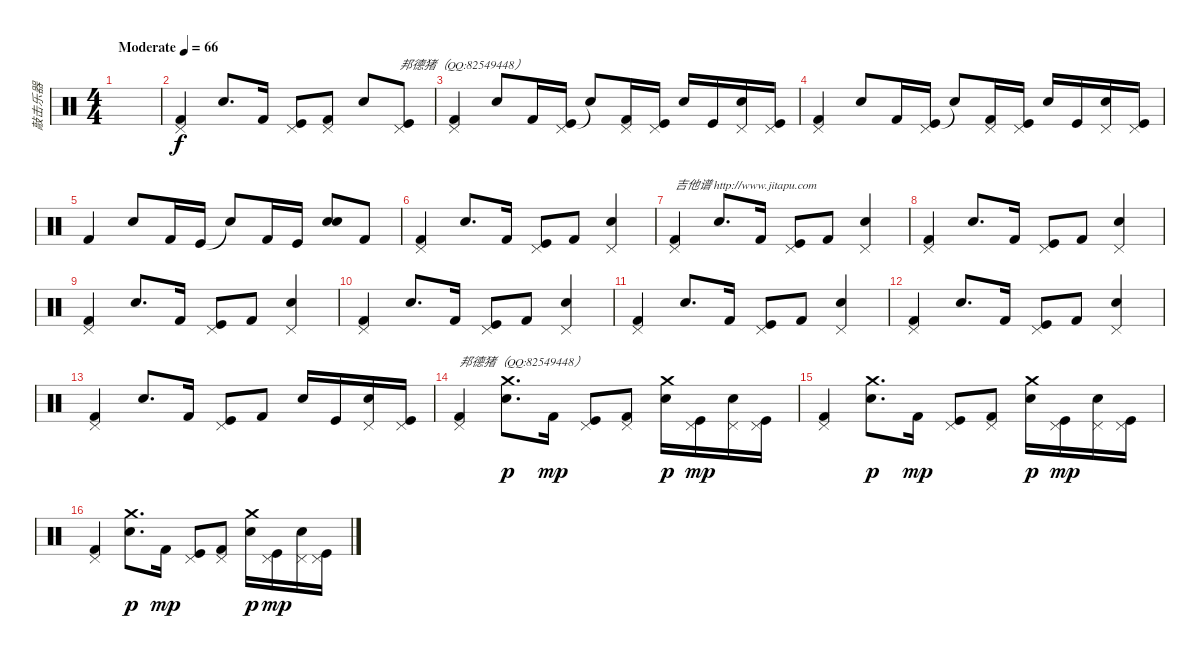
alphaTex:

\track ("敲击乐器" "敲击乐器") {instrument percussion}
\staff {score}
\articulation defaults
\ts (4 4)
\tempo (66 "Moderate")
\clef neutral
\ks c
|
("Kick (hit) 2" "Pedal Hi-Hat (hit)").4 "Snare (hit) 2".8{d} "Kick (hit) 2".16 ("Kick (hit)" "Pedal Hi-Hat (hit)").8 ("Kick (hit) 2" "Pedal Hi-Hat (hit)").8 "Snare (hit) 2".8 ("Kick (hit)" "Pedal Hi-Hat (hit)").8{txt "邦德猪（QQ:82549448）"} |
("Kick (hit) 2" "Pedal Hi-Hat (hit)").4 "Snare (hit) 2".8 "Kick (hit) 2".16 ("Kick (hit)" "Pedal Hi-Hat (hit)").16 "Snare (hit) 2"{t}.8 ("Kick (hit) 2" "Pedal Hi-Hat (hit)").16 ("Kick (hit)" "Pedal Hi-Hat (hit)").16 "Snare (hit) 2".16 "Kick (hit)".16 ("Snare (hit) 2" "Pedal Hi-Hat (hit)").16 ("Kick (hit)" "Pedal Hi-Hat (hit)").16 |
("Kick (hit) 2" "Pedal Hi-Hat (hit)").4 "Snare (hit) 2".8 "Kick (hit) 2".16 ("Kick (hit)" "Pedal Hi-Hat (hit)").16 "Snare (hit) 2"{t}.8 ("Kick (hit) 2" "Pedal Hi-Hat (hit)").16 ("Kick (hit)" "Pedal Hi-Hat (hit)").16 "Snare (hit) 2".16 "Kick (hit)".16 ("Snare (hit) 2" "Pedal Hi-Hat (hit)").16 ("Kick (hit)" "Pedal Hi-Hat (hit)").16 |
"Kick (hit) 2".4 "Snare (hit) 2".8 "Kick (hit) 2".16 "Kick (hit)".16 "Snare (hit) 2"{t}.8 "Kick (hit) 2".16 "Kick (hit)".16 ("Snare (hit) 2" "Electric Snare (hit)").8 "Kick (hit) 2".8 |
("Kick (hit) 2" "Pedal Hi-Hat (hit)").4 "Snare (hit) 2".8{d} "Kick (hit) 2".16 ("Kick (hit)" "Pedal Hi-Hat (hit)").8 "Kick (hit) 2".8 ("Snare (hit) 2" "Pedal Hi-Hat (hit)").4 |
("Kick (hit) 2" "Pedal Hi-Hat (hit)").4{txt "吉他谱 http://www.jitapu.com"} "Snare (hit) 2".8{d} "Kick (hit) 2".16 ("Kick (hit)" "Pedal Hi-Hat (hit)").8 "Kick (hit) 2".8 ("Snare (hit) 2" "Pedal Hi-Hat (hit)").4 |
("Kick (hit) 2" "Pedal Hi-Hat (hit)").4 "Snare (hit) 2".8{d} "Kick (hit) 2".16 ("Kick (hit)" "Pedal Hi-Hat (hit)").8 "Kick (hit) 2".8 ("Snare (hit) 2" "Pedal Hi-Hat (hit)").4 |
("Kick (hit) 2" "Pedal Hi-Hat (hit)").4 "Snare (hit) 2".8{d} "Kick (hit) 2".16 ("Kick (hit)" "Pedal Hi-Hat (hit)").8 "Kick (hit) 2".8 ("Snare (hit) 2" "Pedal Hi-Hat (hit)").4 |
("Kick (hit) 2" "Pedal Hi-Hat (hit)").4 "Snare (hit) 2".8{d} "Kick (hit) 2".16 ("Kick (hit)" "Pedal Hi-Hat (hit)").8 "Kick (hit) 2".8 ("Snare (hit) 2" "Pedal Hi-Hat (hit)").4 |
("Kick (hit) 2" "Pedal Hi-Hat (hit)").4 "Snare (hit) 2".8{d} "Kick (hit) 2".16 ("Kick (hit)" "Pedal Hi-Hat (hit)").8 "Kick (hit) 2".8 ("Snare (hit) 2" "Pedal Hi-Hat (hit)").4 |
("Kick (hit) 2" "Pedal Hi-Hat (hit)").4 "Snare (hit) 2".8{d} "Kick (hit) 2".16 ("Kick (hit)" "Pedal Hi-Hat (hit)").8 "Kick (hit) 2".8 ("Snare (hit) 2" "Pedal Hi-Hat (hit)").4 |
("Kick (hit) 2" "Pedal Hi-Hat (hit)").4 "Snare (hit) 2".8{d} "Kick (hit) 2".16 ("Kick (hit)" "Pedal Hi-Hat (hit)").8 "Kick (hit) 2".8 "Snare (hit) 2".16 "Kick (hit)".16 ("Snare (hit) 2" "Pedal Hi-Hat (hit)").16 ("Kick (hit)" "Pedal Hi-Hat (hit)").16 |
("Kick (hit) 2" "Pedal Hi-Hat (hit)").4{txt "邦德猪（QQ:82549448）"} ("Snare (hit) 2" "Crash medium (hit)").8{d dy p} "Kick (hit) 2".16{dy mp} ("Kick (hit)" "Pedal Hi-Hat (hit)").8 ("Kick (hit) 2" "Pedal Hi-Hat (hit)").8 ("Snare (hit) 2" "Crash medium (hit)").16{dy p} ("Kick (hit)" "Pedal Hi-Hat (hit)").16{dy mp} ("Snare (hit) 2" "Pedal Hi-Hat (hit)").16 ("Kick (hit)" "Pedal Hi-Hat (hit)").16 |
("Kick (hit) 2" "Pedal Hi-Hat (hit)").4 ("Snare (hit) 2" "Crash medium (hit)").8{d dy p} "Kick (hit) 2".16{dy mp} ("Kick (hit)" "Pedal Hi-Hat (hit)").8 ("Kick (hit) 2" "Pedal Hi-Hat (hit)").8 ("Snare (hit) 2" "Crash medium (hit)").16{dy p} ("Kick (hit)" "Pedal Hi-Hat (hit)").16{dy mp} ("Snare (hit) 2" "Pedal Hi-Hat (hit)").16 ("Kick (hit)" "Pedal Hi-Hat (hit)").16 |
("Kick (hit) 2" "Pedal Hi-Hat (hit)").4 ("Snare (hit) 2" "Crash medium (hit)").8{d dy p} "Kick (hit) 2".16{dy mp} ("Kick (hit)" "Pedal Hi-Hat (hit)").8 ("Kick (hit) 2" "Pedal Hi-Hat (hit)").8 ("Snare (hit) 2" "Crash medium (hit)").16{dy p} ("Kick (hit)" "Pedal Hi-Hat (hit)").16{dy mp} ("Snare (hit) 2" "Pedal Hi-Hat (hit)").16 ("Kick (hit)" "Pedal Hi-Hat (hit)").16
